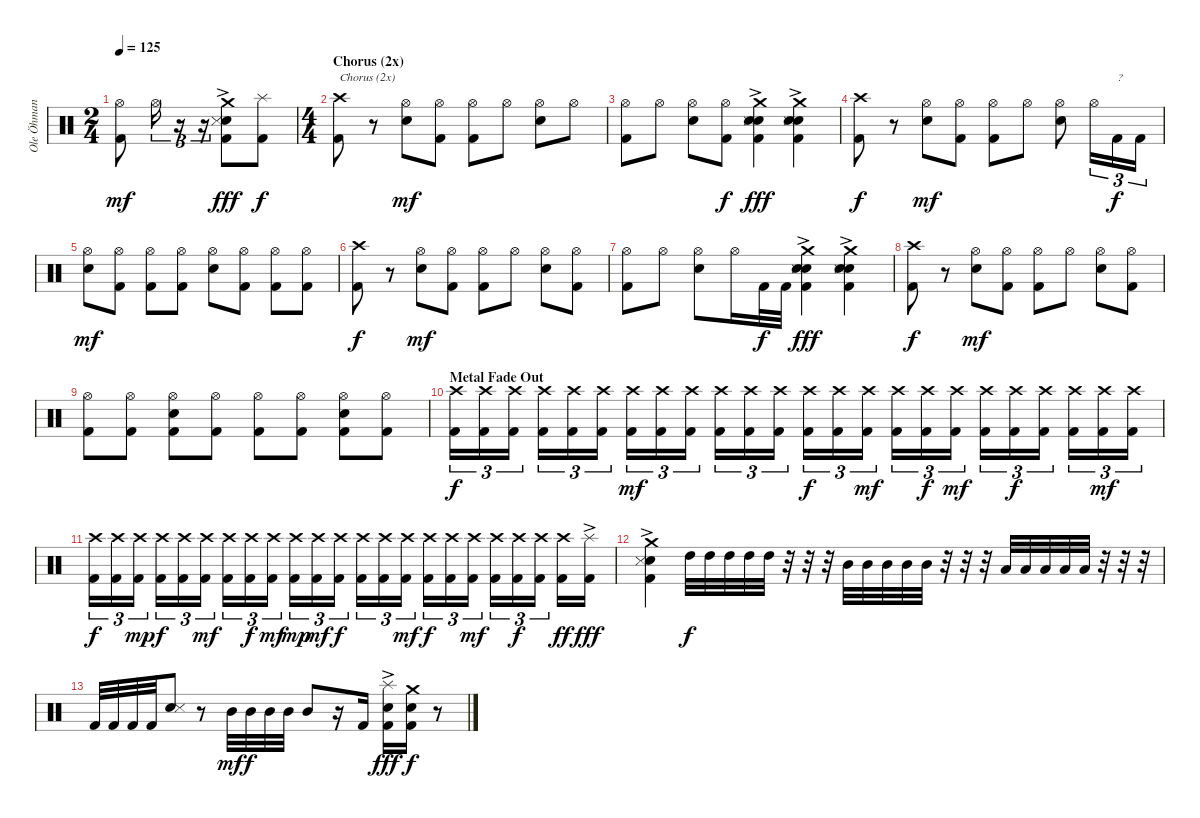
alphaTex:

\track ("Ole Öhman" "Ole Öhman") {instrument percussion}
\staff {score}
\articulation defaults
\ts (2 4)
\tempo 125
\clef neutral
\ks c
("Kick (hit) 2" "Hi-Hat (open)").8{dy mf} "Hi-Hat (open)".16{tu (3 2)} r.16{tu (3 2)} r.16{tu (3 2)} ("Kick (hit) 2" "Electric Snare (hit)"{ac} "Snare (side stick) 3" "Crash medium (hit)").8{dy fff} ("Kick (hit) 2" "Splash (hit)").8{dy f} |
\ts (4 4)
\section ("" "Chorus (2x)")
("Kick (hit) 2" "Crash high (hit)").8{txt "Chorus (2x)"} r.8 ("Electric Snare (hit)" "Hi-Hat (open)").8{dy mf} ("Kick (hit) 2" "Hi-Hat (open)").8 ("Kick (hit) 2" "Hi-Hat (open)").8 "Hi-Hat (open)".8 ("Electric Snare (hit)" "Hi-Hat (open)").8 "Hi-Hat (open)".8 |
("Kick (hit) 2" "Hi-Hat (open)").8 "Hi-Hat (open)".8 ("Electric Snare (hit)" "Hi-Hat (open)").8 ("Kick (hit) 2" "Hi-Hat (open)").8{dy f} ("Kick (hit) 2" "Electric Snare (hit)"{ac} "Electric Snare (hit)"{ac} "Snare (side stick) 3" "Crash medium (hit)"{ac}).4{dy fff} ("Kick (hit) 2" "Electric Snare (hit)"{ac} "Electric Snare (hit)"{ac} "Snare (side stick) 3" "Crash medium (hit)"{ac}).4 |
("Kick (hit) 2" "Crash high (hit)").8{dy f} r.8 ("Electric Snare (hit)" "Hi-Hat (open)").8{dy mf} ("Kick (hit) 2" "Hi-Hat (open)").8 ("Kick (hit) 2" "Hi-Hat (open)").8 "Hi-Hat (open)".8 ("Electric Snare (hit)" "Hi-Hat (open)").8 "Hi-Hat (open)".16{tu (3 2)} "Kick (hit) 2".16{tu (3 2) txt "?" dy f} "Kick (hit) 2".16{tu (3 2)} |
("Electric Snare (hit)" "Hi-Hat (open)").8{dy mf} ("Kick (hit) 2" "Hi-Hat (open)").8 ("Kick (hit) 2" "Hi-Hat (open)").8 ("Kick (hit) 2" "Hi-Hat (open)").8 ("Electric Snare (hit)" "Hi-Hat (open)").8 ("Kick (hit) 2" "Hi-Hat (open)").8 ("Kick (hit) 2" "Hi-Hat (open)").8 ("Kick (hit) 2" "Hi-Hat (open)").8 |
("Kick (hit) 2" "Crash high (hit)").8{dy f} r.8 ("Electric Snare (hit)" "Hi-Hat (open)").8{dy mf} ("Kick (hit) 2" "Hi-Hat (open)").8 ("Kick (hit) 2" "Hi-Hat (open)").8 "Hi-Hat (open)".8 ("Electric Snare (hit)" "Hi-Hat (open)").8 ("Kick (hit) 2" "Hi-Hat (open)").8 |
("Kick (hit) 2" "Hi-Hat (open)").8 "Hi-Hat (open)".8 ("Electric Snare (hit)" "Hi-Hat (open)").8 "Hi-Hat (open)".16 "Kick (hit) 2".32{dy f} "Kick (hit) 2".32 ("Kick (hit) 2" "Electric Snare (hit)"{ac} "Electric Snare (hit)"{ac} "Snare (side stick) 3" "Crash medium (hit)"{ac}).4{dy fff} ("Kick (hit) 2" "Electric Snare (hit)"{ac} "Electric Snare (hit)"{ac} "Snare (side stick) 3" "Crash medium (hit)"{ac}).4 |
("Kick (hit) 2" "Crash high (hit)").8{dy f} r.8 ("Electric Snare (hit)" "Hi-Hat (open)").8{dy mf} ("Kick (hit) 2" "Hi-Hat (open)").8 ("Kick (hit) 2" "Hi-Hat (open)").8 "Hi-Hat (open)".8 ("Electric Snare (hit)" "Hi-Hat (open)").8 ("Kick (hit) 2" "Hi-Hat (open)").8 |
("Kick (hit) 2" "Hi-Hat (open)").8 ("Kick (hit) 2" "Hi-Hat (open)").8 ("Kick (hit) 2" "Electric Snare (hit)" "Hi-Hat (open)").8 ("Kick (hit) 2" "Hi-Hat (open)").8 ("Kick (hit) 2" "Hi-Hat (open)").8 ("Kick (hit) 2" "Hi-Hat (open)").8 ("Kick (hit) 2" "Electric Snare (hit)" "Hi-Hat (open)").8 ("Kick (hit) 2" "Hi-Hat (open)").8 |
\section ("" "Metal Fade Out")
("Kick (hit) 2" "Crash high (hit)").16{tu (3 2) dy f} ("Kick (hit) 2" "Crash high (hit)").16{tu (3 2)} ("Kick (hit) 2" "Crash high (hit)").16{tu (3 2)} ("Kick (hit) 2" "Crash high (hit)").16{tu (3 2)} ("Kick (hit) 2" "Crash high (hit)").16{tu (3 2)} ("Kick (hit) 2" "Crash high (hit)").16{tu (3 2)} ("Kick (hit) 2" "Crash high (hit)").16{tu (3 2) dy mf} ("Kick (hit) 2" "Crash high (hit)").16{tu (3 2)} ("Kick (hit) 2" "Crash high (hit)").16{tu (3 2)} ("Kick (hit) 2" "Crash high (hit)").16{tu (3 2)} ("Kick (hit) 2" "Crash high (hit)").16{tu (3 2)} ("Kick (hit) 2" "Crash high (hit)").16{tu (3 2)} ("Kick (hit) 2" "Crash high (hit)").16{tu (3 2) dy f} ("Kick (hit) 2" "Crash high (hit)").16{tu (3 2)} ("Kick (hit) 2" "Crash high (hit)").16{tu (3 2) dy mf} ("Kick (hit) 2" "Crash high (hit)").16{tu (3 2)} ("Kick (hit) 2" "Crash high (hit)").16{tu (3 2) dy f} ("Kick (hit) 2" "Crash high (hit)").16{tu (3 2) dy mf} ("Kick (hit) 2" "Crash high (hit)").16{tu (3 2)} ("Kick (hit) 2" "Crash high (hit)").16{tu (3 2) dy f} ("Kick (hit) 2" "Crash high (hit)").16{tu (3 2)} ("Kick (hit) 2" "Crash high (hit)").16{tu (3 2)} ("Kick (hit) 2" "Crash high (hit)").16{tu (3 2) dy mf} ("Kick (hit) 2" "Crash high (hit)").16{tu (3 2)} |
("Kick (hit) 2" "Crash high (hit)").16{tu (3 2) dy f} ("Kick (hit) 2" "Crash high (hit)").16{tu (3 2)} ("Kick (hit) 2" "Crash high (hit)").16{tu (3 2) dy mp} ("Kick (hit) 2" "Crash high (hit)").16{tu (3 2) dy f} ("Kick (hit) 2" "Crash high (hit)").16{tu (3 2)} ("Kick (hit) 2" "Crash high (hit)").16{tu (3 2) dy mf} ("Kick (hit) 2" "Crash high (hit)").16{tu (3 2)} ("Kick (hit) 2" "Crash high (hit)").16{tu (3 2) dy f} ("Kick (hit) 2" "Crash high (hit)").16{tu (3 2) dy mf} ("Kick (hit) 2" "Crash high (hit)").16{tu (3 2) dy mp} ("Kick (hit) 2" "Crash high (hit)").16{tu (3 2) dy mf} ("Kick (hit) 2" "Crash high (hit)").16{tu (3 2) dy f} ("Kick (hit) 2" "Crash high (hit)").16{tu (3 2)} ("Kick (hit) 2" "Crash high (hit)").16{tu (3 2)} ("Kick (hit) 2" "Crash high (hit)").16{tu (3 2) dy mf} ("Kick (hit) 2" "Crash high (hit)").16{tu (3 2) dy f} ("Kick (hit) 2" "Crash high (hit)").16{tu (3 2)} ("Kick (hit) 2" "Crash high (hit)").16{tu (3 2) dy mf} ("Kick (hit) 2" "Crash high (hit)").16{tu (3 2)} ("Kick (hit) 2" "Crash high (hit)").16{tu (3 2) dy f} ("Kick (hit) 2" "Crash high (hit)").16{tu (3 2)} ("Kick (hit) 2" "Crash high (hit)").16{dy ff} ("Kick (hit) 2" "Splash (hit)"{ac}).16{dy fff} |
("Kick (hit) 2" "Electric Snare (hit)" "Snare (side stick) 3" "Crash medium (hit)"{ac}).4 "High Tom (hit)".32{dy f} "High Tom (hit)".32 "High Tom (hit)".32 "High Tom (hit)".32 "High Tom (hit)".32 r.32 r.32 r.32 "Mid Tom (hit)".32 "Mid Tom (hit)".32 "Mid Tom (hit)".32 "Mid Tom (hit)".32 "Mid Tom (hit)".32 r.32 r.32 r.32 "Low Tom (hit)".32 "Low Tom (hit)".32 "Low Tom (hit)".32 "Low Tom (hit)".32 "Low Tom (hit)".32 r.32 r.32 r.32 |
"Kick (hit) 2".32 "Kick (hit) 2".32 "Kick (hit) 2".32 "Kick (hit) 2".32 ("Electric Snare (hit)" "Snare (side stick) 3").8 r.8 "Mid Tom (hit)".32{dy mf} "Mid Tom (hit)".32{dy f} "Mid Tom (hit)".32 "Mid Tom (hit)".32 "Mid Tom (hit)".8 r.16 "Kick (hit) 2".16 ("Kick (hit) 2" "Electric Snare (hit)" "Splash (hit)"{ac}).16{dy fff} ("Kick (hit) 2" "Electric Snare (hit)" "Crash medium (hit)").16{dy f} r.8
